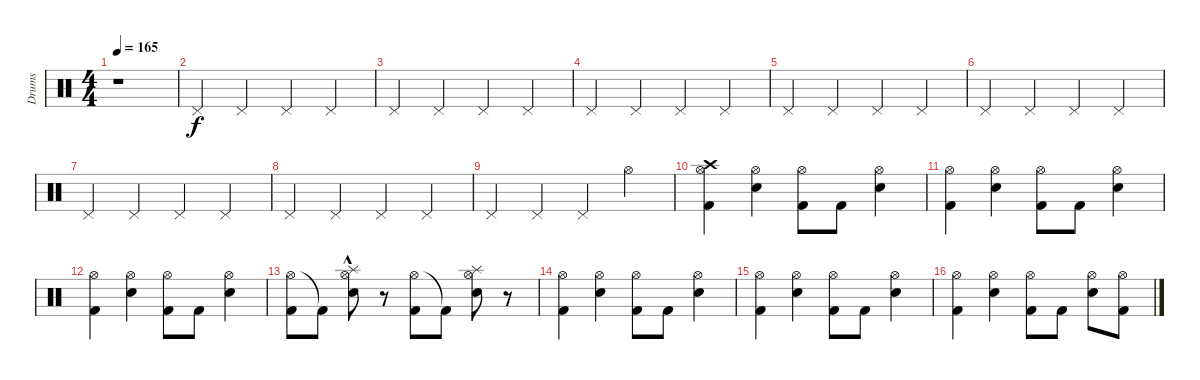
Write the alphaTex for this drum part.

\track ("Drums" "Drums") {instrument percussion}
\staff {score}
\articulation defaults
\ts (4 4)
\tempo 165
\clef neutral
\ks c
r.1{dy f} |
"Pedal Hi-Hat (hit)".4 "Pedal Hi-Hat (hit)".4 "Pedal Hi-Hat (hit)".4 "Pedal Hi-Hat (hit)".4 |
"Pedal Hi-Hat (hit)".4 "Pedal Hi-Hat (hit)".4 "Pedal Hi-Hat (hit)".4 "Pedal Hi-Hat (hit)".4 |
"Pedal Hi-Hat (hit)".4 "Pedal Hi-Hat (hit)".4 "Pedal Hi-Hat (hit)".4 "Pedal Hi-Hat (hit)".4 |
"Pedal Hi-Hat (hit)".4 "Pedal Hi-Hat (hit)".4 "Pedal Hi-Hat (hit)".4 "Pedal Hi-Hat (hit)".4 |
"Pedal Hi-Hat (hit)".4 "Pedal Hi-Hat (hit)".4 "Pedal Hi-Hat (hit)".4 "Pedal Hi-Hat (hit)".4 |
"Pedal Hi-Hat (hit)".4 "Pedal Hi-Hat (hit)".4 "Pedal Hi-Hat (hit)".4 "Pedal Hi-Hat (hit)".4 |
"Pedal Hi-Hat (hit)".4 "Pedal Hi-Hat (hit)".4 "Pedal Hi-Hat (hit)".4 "Pedal Hi-Hat (hit)".4 |
"Pedal Hi-Hat (hit)".4 "Pedal Hi-Hat (hit)".4 "Pedal Hi-Hat (hit)".4 "Hi-Hat (open)".4 |
("Kick (hit) 2" "Hi-Hat (open)" "Crash high (hit)").4 ("Hi-Hat (open)" "Snare (hit) 2").4 ("Hi-Hat (open)" "Kick (hit) 2").8 "Kick (hit) 2".8 ("Hi-Hat (open)" "Snare (hit) 2").4 |
("Kick (hit) 2" "Hi-Hat (open)").4 ("Hi-Hat (open)" "Snare (hit) 2").4 ("Hi-Hat (open)" "Kick (hit) 2").8 "Kick (hit) 2".8 ("Hi-Hat (open)" "Snare (hit) 2").4 |
("Kick (hit) 2" "Hi-Hat (open)").4 ("Hi-Hat (open)" "Snare (hit) 2").4 ("Hi-Hat (open)" "Kick (hit) 2").8 "Kick (hit) 2".8 ("Hi-Hat (open)" "Snare (hit) 2").4 |
("Hi-Hat (open)" "Kick (hit) 2").8 "Kick (hit) 2"{t}.8 ("Splash (hit)" "Hi-Hat (open)" "Snare (hit) 2"{hac}).8 r.8 ("Hi-Hat (open)" "Kick (hit) 2").8 "Kick (hit) 2"{t}.8 ("Splash (hit)" "Hi-Hat (open)" "Snare (hit) 2").8 r.8 |
("Kick (hit) 2" "Hi-Hat (open)").4 ("Hi-Hat (open)" "Snare (hit) 2").4 ("Hi-Hat (open)" "Kick (hit) 2").8 "Kick (hit) 2".8 ("Hi-Hat (open)" "Snare (hit) 2").4 |
("Kick (hit) 2" "Hi-Hat (open)").4 ("Hi-Hat (open)" "Snare (hit) 2").4 ("Hi-Hat (open)" "Kick (hit) 2").8 "Kick (hit) 2".8 ("Hi-Hat (open)" "Snare (hit) 2").4 |
("Kick (hit) 2" "Hi-Hat (open)").4 ("Hi-Hat (open)" "Snare (hit) 2").4 ("Hi-Hat (open)" "Kick (hit) 2").8 "Kick (hit) 2".8 ("Hi-Hat (open)" "Snare (hit) 2").8 ("Hi-Hat (open)" "Kick (hit) 2").8
